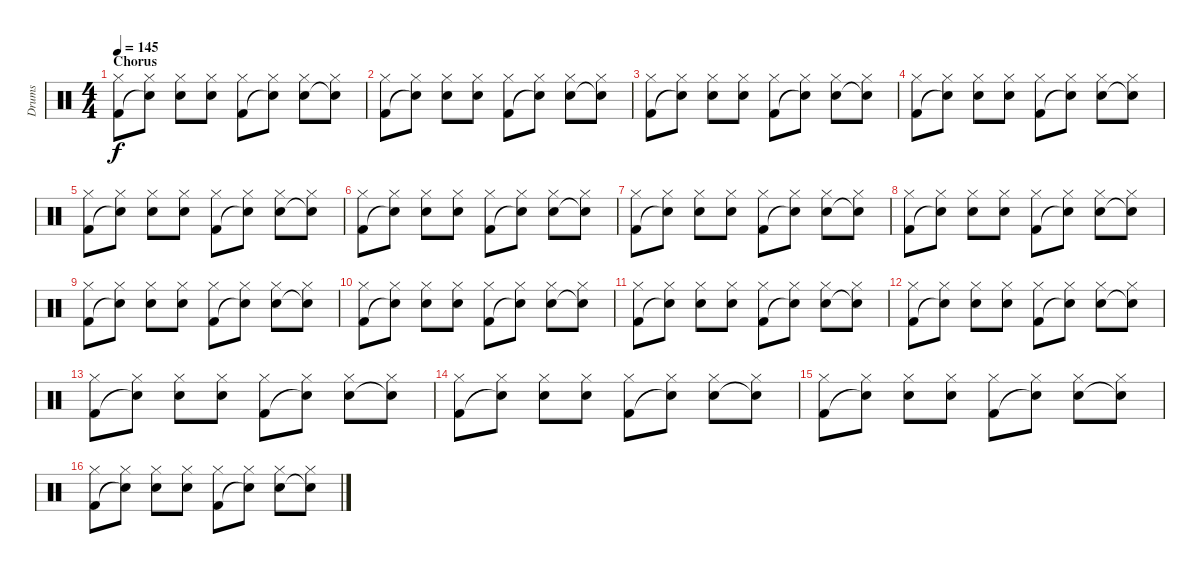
\track ("Drums" "Drums") {instrument percussion}
\staff {score}
\articulation defaults
\ts (4 4)
\section ("" "Chorus")
\tempo 145
\clef neutral
\ks c
("Kick (hit) 2" "Hi-Hat (closed)").8{dy f} ("Snare (hit)"{t} "Hi-Hat (closed)").8 ("Snare (hit) 2" "Hi-Hat (closed)").8 ("Snare (hit) 2" "Hi-Hat (closed)").8 ("Kick (hit) 2" "Hi-Hat (closed)").8 ("Snare (hit)"{t} "Hi-Hat (closed)").8 ("Snare (hit) 2" "Hi-Hat (closed)").8 ("Snare (hit)"{t} "Hi-Hat (closed)").8 |
("Kick (hit) 2" "Hi-Hat (closed)").8 ("Snare (hit)"{t} "Hi-Hat (closed)").8 ("Snare (hit) 2" "Hi-Hat (closed)").8 ("Snare (hit) 2" "Hi-Hat (closed)").8 ("Kick (hit) 2" "Hi-Hat (closed)").8 ("Snare (hit)"{t} "Hi-Hat (closed)").8 ("Snare (hit) 2" "Hi-Hat (closed)").8 ("Snare (hit)"{t} "Hi-Hat (closed)").8 |
("Kick (hit) 2" "Hi-Hat (closed)").8 ("Snare (hit)"{t} "Hi-Hat (closed)").8 ("Snare (hit) 2" "Hi-Hat (closed)").8 ("Snare (hit) 2" "Hi-Hat (closed)").8 ("Kick (hit) 2" "Hi-Hat (closed)").8 ("Snare (hit)"{t} "Hi-Hat (closed)").8 ("Snare (hit) 2" "Hi-Hat (closed)").8 ("Snare (hit)"{t} "Hi-Hat (closed)").8 |
("Kick (hit) 2" "Hi-Hat (closed)").8 ("Snare (hit)"{t} "Hi-Hat (closed)").8 ("Snare (hit) 2" "Hi-Hat (closed)").8 ("Snare (hit) 2" "Hi-Hat (closed)").8 ("Kick (hit) 2" "Hi-Hat (closed)").8 ("Snare (hit)"{t} "Hi-Hat (closed)").8 ("Snare (hit) 2" "Hi-Hat (closed)").8 ("Snare (hit)"{t} "Hi-Hat (closed)").8 |
("Kick (hit) 2" "Hi-Hat (closed)").8 ("Snare (hit)"{t} "Hi-Hat (closed)").8 ("Snare (hit) 2" "Hi-Hat (closed)").8 ("Snare (hit) 2" "Hi-Hat (closed)").8 ("Kick (hit) 2" "Hi-Hat (closed)").8 ("Snare (hit)"{t} "Hi-Hat (closed)").8 ("Snare (hit) 2" "Hi-Hat (closed)").8 ("Snare (hit)"{t} "Hi-Hat (closed)").8 |
("Kick (hit) 2" "Hi-Hat (closed)").8 ("Snare (hit)"{t} "Hi-Hat (closed)").8 ("Snare (hit) 2" "Hi-Hat (closed)").8 ("Snare (hit) 2" "Hi-Hat (closed)").8 ("Kick (hit) 2" "Hi-Hat (closed)").8 ("Snare (hit)"{t} "Hi-Hat (closed)").8 ("Snare (hit) 2" "Hi-Hat (closed)").8 ("Snare (hit)"{t} "Hi-Hat (closed)").8 |
("Kick (hit) 2" "Hi-Hat (closed)").8 ("Snare (hit)"{t} "Hi-Hat (closed)").8 ("Snare (hit) 2" "Hi-Hat (closed)").8 ("Snare (hit) 2" "Hi-Hat (closed)").8 ("Kick (hit) 2" "Hi-Hat (closed)").8 ("Snare (hit)"{t} "Hi-Hat (closed)").8 ("Snare (hit) 2" "Hi-Hat (closed)").8 ("Snare (hit)"{t} "Hi-Hat (closed)").8 |
("Kick (hit) 2" "Hi-Hat (closed)").8 ("Snare (hit)"{t} "Hi-Hat (closed)").8 ("Snare (hit) 2" "Hi-Hat (closed)").8 ("Snare (hit) 2" "Hi-Hat (closed)").8 ("Kick (hit) 2" "Hi-Hat (closed)").8 ("Snare (hit)"{t} "Hi-Hat (closed)").8 ("Snare (hit) 2" "Hi-Hat (closed)").8 ("Snare (hit)"{t} "Hi-Hat (closed)").8 |
("Kick (hit) 2" "Hi-Hat (closed)").8 ("Snare (hit)"{t} "Hi-Hat (closed)").8 ("Snare (hit) 2" "Hi-Hat (closed)").8 ("Snare (hit) 2" "Hi-Hat (closed)").8 ("Kick (hit) 2" "Hi-Hat (closed)").8 ("Snare (hit)"{t} "Hi-Hat (closed)").8 ("Snare (hit) 2" "Hi-Hat (closed)").8 ("Snare (hit)"{t} "Hi-Hat (closed)").8 |
("Kick (hit) 2" "Hi-Hat (closed)").8 ("Snare (hit)"{t} "Hi-Hat (closed)").8 ("Snare (hit) 2" "Hi-Hat (closed)").8 ("Snare (hit) 2" "Hi-Hat (closed)").8 ("Kick (hit) 2" "Hi-Hat (closed)").8 ("Snare (hit)"{t} "Hi-Hat (closed)").8 ("Snare (hit) 2" "Hi-Hat (closed)").8 ("Snare (hit)"{t} "Hi-Hat (closed)").8 |
("Kick (hit) 2" "Hi-Hat (closed)").8 ("Snare (hit)"{t} "Hi-Hat (closed)").8 ("Snare (hit) 2" "Hi-Hat (closed)").8 ("Snare (hit) 2" "Hi-Hat (closed)").8 ("Kick (hit) 2" "Hi-Hat (closed)").8 ("Snare (hit)"{t} "Hi-Hat (closed)").8 ("Snare (hit) 2" "Hi-Hat (closed)").8 ("Snare (hit)"{t} "Hi-Hat (closed)").8 |
("Kick (hit) 2" "Hi-Hat (closed)").8 ("Snare (hit)"{t} "Hi-Hat (closed)").8 ("Snare (hit) 2" "Hi-Hat (closed)").8 ("Snare (hit) 2" "Hi-Hat (closed)").8 ("Kick (hit) 2" "Hi-Hat (closed)").8 ("Snare (hit)"{t} "Hi-Hat (closed)").8 ("Snare (hit) 2" "Hi-Hat (closed)").8 ("Snare (hit)"{t} "Hi-Hat (closed)").8 |
("Kick (hit) 2" "Hi-Hat (closed)").8 ("Snare (hit)"{t} "Hi-Hat (closed)").8 ("Snare (hit) 2" "Hi-Hat (closed)").8 ("Snare (hit) 2" "Hi-Hat (closed)").8 ("Kick (hit) 2" "Hi-Hat (closed)").8 ("Snare (hit)"{t} "Hi-Hat (closed)").8 ("Snare (hit) 2" "Hi-Hat (closed)").8 ("Snare (hit)"{t} "Hi-Hat (closed)").8 |
("Kick (hit) 2" "Hi-Hat (closed)").8 ("Snare (hit)"{t} "Hi-Hat (closed)").8 ("Snare (hit) 2" "Hi-Hat (closed)").8 ("Snare (hit) 2" "Hi-Hat (closed)").8 ("Kick (hit) 2" "Hi-Hat (closed)").8 ("Snare (hit)"{t} "Hi-Hat (closed)").8 ("Snare (hit) 2" "Hi-Hat (closed)").8 ("Snare (hit)"{t} "Hi-Hat (closed)").8 |
("Kick (hit) 2" "Hi-Hat (closed)").8 ("Snare (hit)"{t} "Hi-Hat (closed)").8 ("Snare (hit) 2" "Hi-Hat (closed)").8 ("Snare (hit) 2" "Hi-Hat (closed)").8 ("Kick (hit) 2" "Hi-Hat (closed)").8 ("Snare (hit)"{t} "Hi-Hat (closed)").8 ("Snare (hit) 2" "Hi-Hat (closed)").8 ("Snare (hit)"{t} "Hi-Hat (closed)").8 |
("Kick (hit) 2" "Hi-Hat (closed)").8 ("Snare (hit)"{t} "Hi-Hat (closed)").8 ("Snare (hit) 2" "Hi-Hat (closed)").8 ("Snare (hit) 2" "Hi-Hat (closed)").8 ("Kick (hit) 2" "Hi-Hat (closed)").8 ("Snare (hit)"{t} "Hi-Hat (closed)").8 ("Snare (hit) 2" "Hi-Hat (closed)").8 ("Snare (hit)"{t} "Hi-Hat (closed)").8
